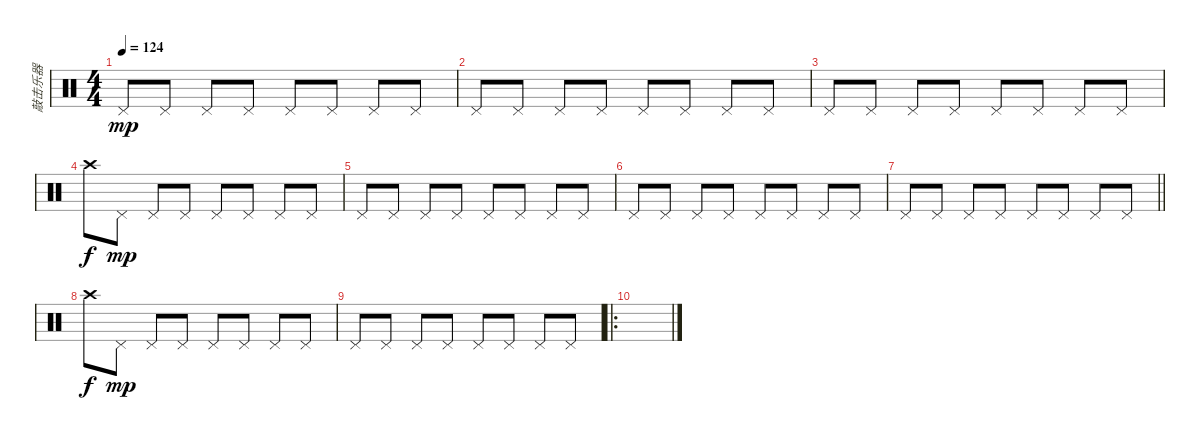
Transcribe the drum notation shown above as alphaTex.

\track ("敲击乐器" "敲击乐器") {instrument percussion}
\staff {score}
\articulation defaults
\ts (4 4)
\tempo 124
\clef neutral
\ks c "Pedal Hi-Hat (hit)".8{dy mp} "Pedal Hi-Hat (hit)".8 "Pedal Hi-Hat (hit)".8 "Pedal Hi-Hat (hit)".8 "Pedal Hi-Hat (hit)".8 "Pedal Hi-Hat (hit)".8 "Pedal Hi-Hat (hit)".8 "Pedal Hi-Hat (hit)".8
|
"Pedal Hi-Hat (hit)".8 "Pedal Hi-Hat (hit)".8 "Pedal Hi-Hat (hit)".8 "Pedal Hi-Hat (hit)".8 "Pedal Hi-Hat (hit)".8 "Pedal Hi-Hat (hit)".8 "Pedal Hi-Hat (hit)".8 "Pedal Hi-Hat (hit)".8 |
"Pedal Hi-Hat (hit)".8 "Pedal Hi-Hat (hit)".8 "Pedal Hi-Hat (hit)".8 "Pedal Hi-Hat (hit)".8 "Pedal Hi-Hat (hit)".8 "Pedal Hi-Hat (hit)".8 "Pedal Hi-Hat (hit)".8 "Pedal Hi-Hat (hit)".8 |
"Crash high (hit)".8{dy f} "Pedal Hi-Hat (hit)".8{dy mp} "Pedal Hi-Hat (hit)".8 "Pedal Hi-Hat (hit)".8 "Pedal Hi-Hat (hit)".8 "Pedal Hi-Hat (hit)".8 "Pedal Hi-Hat (hit)".8 "Pedal Hi-Hat (hit)".8 |
"Pedal Hi-Hat (hit)".8 "Pedal Hi-Hat (hit)".8 "Pedal Hi-Hat (hit)".8 "Pedal Hi-Hat (hit)".8 "Pedal Hi-Hat (hit)".8 "Pedal Hi-Hat (hit)".8 "Pedal Hi-Hat (hit)".8 "Pedal Hi-Hat (hit)".8 |
"Pedal Hi-Hat (hit)".8 "Pedal Hi-Hat (hit)".8 "Pedal Hi-Hat (hit)".8 "Pedal Hi-Hat (hit)".8 "Pedal Hi-Hat (hit)".8 "Pedal Hi-Hat (hit)".8 "Pedal Hi-Hat (hit)".8 "Pedal Hi-Hat (hit)".8 |
\barLineRight lightlight "Pedal Hi-Hat (hit)".8 "Pedal Hi-Hat (hit)".8 "Pedal Hi-Hat (hit)".8 "Pedal Hi-Hat (hit)".8 "Pedal Hi-Hat (hit)".8 "Pedal Hi-Hat (hit)".8 "Pedal Hi-Hat (hit)".8 "Pedal Hi-Hat (hit)".8
|
"Crash high (hit)".8{dy f} "Pedal Hi-Hat (hit)".8{dy mp} "Pedal Hi-Hat (hit)".8 "Pedal Hi-Hat (hit)".8 "Pedal Hi-Hat (hit)".8 "Pedal Hi-Hat (hit)".8 "Pedal Hi-Hat (hit)".8 "Pedal Hi-Hat (hit)".8 |
"Pedal Hi-Hat (hit)".8 "Pedal Hi-Hat (hit)".8 "Pedal Hi-Hat (hit)".8 "Pedal Hi-Hat (hit)".8 "Pedal Hi-Hat (hit)".8 "Pedal Hi-Hat (hit)".8 "Pedal Hi-Hat (hit)".8 "Pedal Hi-Hat (hit)".8 |
\ro
